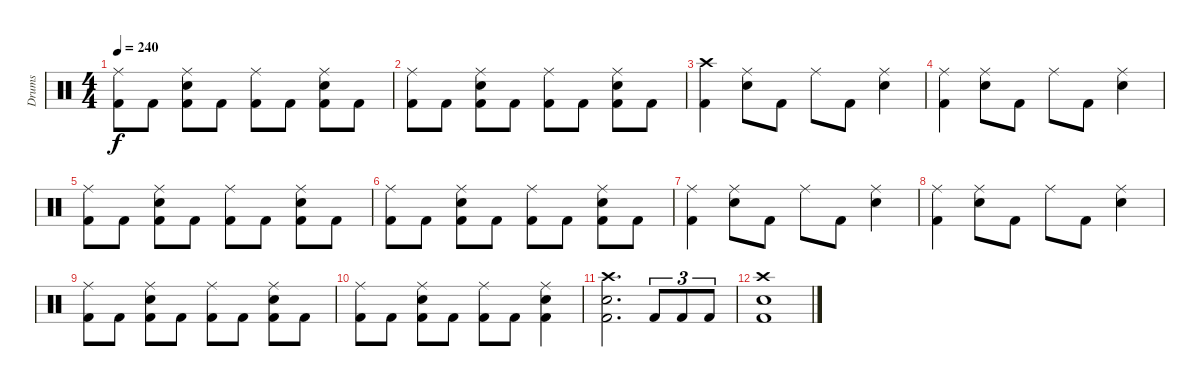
\track ("Drums" "Drums") {instrument percussion}
\staff {score}
\articulation defaults
\ts (4 4)
\tempo 240
\clef neutral
\ks c
("Ride (middle)" "Kick (hit) 2").8{dy f} "Kick (hit) 2".8 ("Ride (middle)" "Snare (hit) 2" "Kick (hit) 2").8 "Kick (hit) 2".8 ("Ride (middle)" "Kick (hit) 2").8 "Kick (hit) 2".8 ("Ride (middle)" "Snare (hit) 2" "Kick (hit) 2").8 "Kick (hit) 2".8 |
("Ride (middle)" "Kick (hit) 2").8 "Kick (hit) 2".8 ("Ride (middle)" "Snare (hit) 2" "Kick (hit) 2").8 "Kick (hit) 2".8 ("Ride (middle)" "Kick (hit) 2").8 "Kick (hit) 2".8 ("Ride (middle)" "Snare (hit) 2" "Kick (hit) 2").8 "Kick (hit) 2".8 |
("Crash high (hit)" "Kick (hit) 2").4 ("Ride (middle)" "Snare (hit) 2").8 "Kick (hit) 2".8 "Ride (middle)".8 "Kick (hit) 2".8 ("Ride (middle)" "Snare (hit) 2").4 |
("Ride (middle)" "Kick (hit) 2").4 ("Ride (middle)" "Snare (hit) 2").8 "Kick (hit) 2".8 "Ride (middle)".8 "Kick (hit) 2".8 ("Ride (middle)" "Snare (hit) 2").4 |
("Ride (middle)" "Kick (hit) 2").8 "Kick (hit) 2".8 ("Ride (middle)" "Snare (hit) 2" "Kick (hit) 2").8 "Kick (hit) 2".8 ("Ride (middle)" "Kick (hit) 2").8 "Kick (hit) 2".8 ("Ride (middle)" "Snare (hit) 2" "Kick (hit) 2").8 "Kick (hit) 2".8 |
("Ride (middle)" "Kick (hit) 2").8 "Kick (hit) 2".8 ("Ride (middle)" "Snare (hit) 2" "Kick (hit) 2").8 "Kick (hit) 2".8 ("Ride (middle)" "Kick (hit) 2").8 "Kick (hit) 2".8 ("Ride (middle)" "Snare (hit) 2" "Kick (hit) 2").8 "Kick (hit) 2".8 |
("Ride (middle)" "Kick (hit) 2").4 ("Ride (middle)" "Snare (hit) 2").8 "Kick (hit) 2".8 "Ride (middle)".8 "Kick (hit) 2".8 ("Ride (middle)" "Snare (hit) 2").4 |
("Ride (middle)" "Kick (hit) 2").4 ("Ride (middle)" "Snare (hit) 2").8 "Kick (hit) 2".8 "Ride (middle)".8 "Kick (hit) 2".8 ("Ride (middle)" "Snare (hit) 2").4 |
("Ride (middle)" "Kick (hit) 2").8 "Kick (hit) 2".8 ("Ride (middle)" "Snare (hit) 2" "Kick (hit) 2").8 "Kick (hit) 2".8 ("Ride (middle)" "Kick (hit) 2").8 "Kick (hit) 2".8 ("Ride (middle)" "Snare (hit) 2" "Kick (hit) 2").8 "Kick (hit) 2".8 |
("Ride (middle)" "Kick (hit) 2").8 "Kick (hit) 2".8 ("Ride (middle)" "Snare (hit) 2" "Kick (hit) 2").8 "Kick (hit) 2".8 ("Ride (middle)" "Kick (hit) 2").8 "Kick (hit) 2".8 ("Ride (middle)" "Snare (hit) 2" "Kick (hit) 2").4 |
("Crash high (hit)" "Snare (hit) 2" "Kick (hit) 2").2{d} "Kick (hit) 2".8{tu (3 2)} "Kick (hit) 2".8{tu (3 2)} "Kick (hit) 2".8{tu (3 2)} |
("Crash high (hit)" "Snare (hit) 2" "Kick (hit) 2").1
